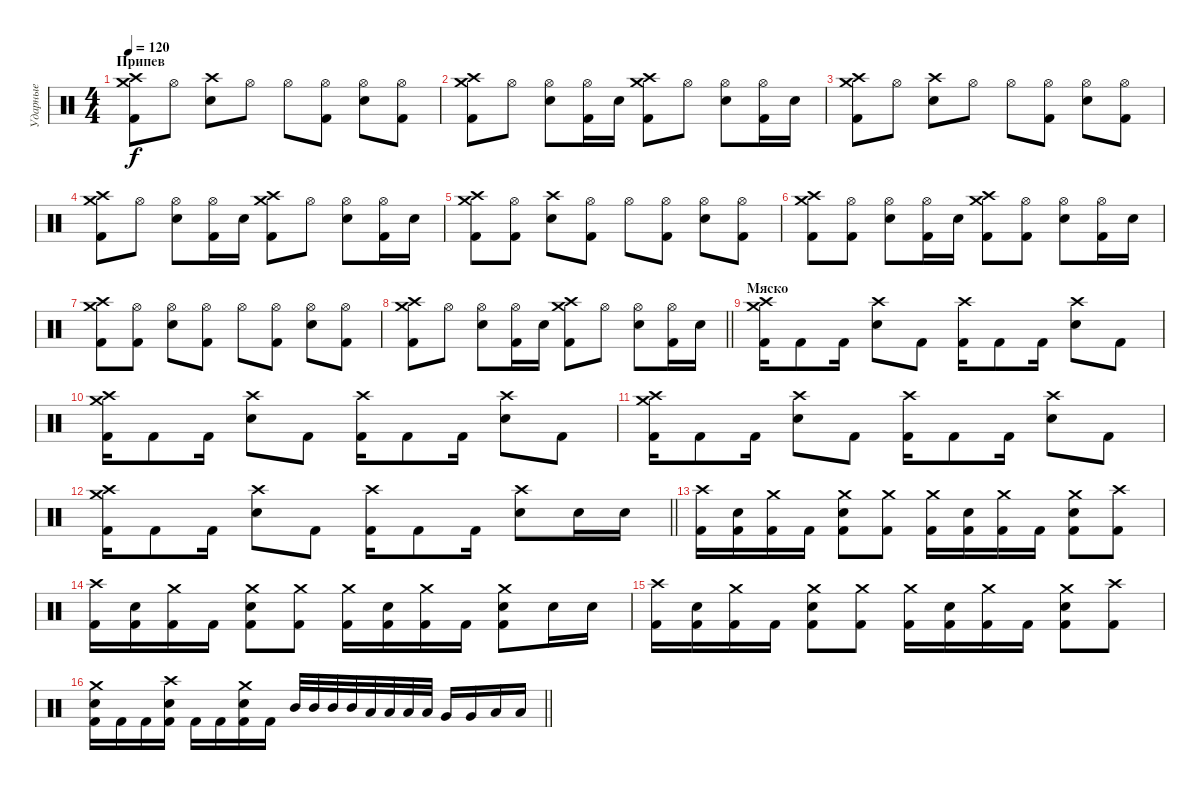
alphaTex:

\track ("Ударные" "Ударные") {instrument percussion}
\staff
\articulation defaults
\ts (4 4)
\section ("" "Припев")
\tempo 120
\clef neutral
\ks c
("Crash high (hit)" "Crash medium (hit)" "Kick (hit) 2").8{dy f} "Hi-Hat (open)".8 ("Crash high (hit)" "Electric Snare (hit)").8 "Hi-Hat (open)".8 "Hi-Hat (open)".8 ("Hi-Hat (open)" "Kick (hit) 2").8 ("Hi-Hat (open)" "Electric Snare (hit)").8 ("Hi-Hat (open)" "Kick (hit) 2").8 |
("Crash high (hit)" "Crash medium (hit)" "Kick (hit) 2").8 "Hi-Hat (open)".8 ("Hi-Hat (open)" "Electric Snare (hit)").8 ("Hi-Hat (open)" "Kick (hit) 2").16 "Electric Snare (hit)".16 ("Crash high (hit)" "Crash medium (hit)" "Kick (hit) 2").8 "Hi-Hat (open)".8 ("Hi-Hat (open)" "Electric Snare (hit)").8 ("Hi-Hat (open)" "Kick (hit) 2").16 "Electric Snare (hit)".16 |
("Crash high (hit)" "Crash medium (hit)" "Kick (hit) 2").8 "Hi-Hat (open)".8 ("Crash high (hit)" "Electric Snare (hit)").8 "Hi-Hat (open)".8 "Hi-Hat (open)".8 ("Hi-Hat (open)" "Kick (hit) 2").8 ("Hi-Hat (open)" "Electric Snare (hit)").8 ("Hi-Hat (open)" "Kick (hit) 2").8 |
("Crash high (hit)" "Crash medium (hit)" "Kick (hit) 2").8 "Hi-Hat (open)".8 ("Hi-Hat (open)" "Electric Snare (hit)").8 ("Hi-Hat (open)" "Kick (hit) 2").16 "Electric Snare (hit)".16 ("Crash high (hit)" "Crash medium (hit)" "Kick (hit) 2").8 "Hi-Hat (open)".8 ("Hi-Hat (open)" "Electric Snare (hit)").8 ("Hi-Hat (open)" "Kick (hit) 2").16 "Electric Snare (hit)".16 |
("Crash high (hit)" "Crash medium (hit)" "Kick (hit) 2").8 ("Hi-Hat (open)" "Kick (hit) 2").8 ("Crash high (hit)" "Electric Snare (hit)").8 ("Hi-Hat (open)" "Kick (hit) 2").8 "Hi-Hat (open)".8 ("Hi-Hat (open)" "Kick (hit) 2").8 ("Hi-Hat (open)" "Electric Snare (hit)").8 ("Hi-Hat (open)" "Kick (hit) 2").8 |
("Crash high (hit)" "Crash medium (hit)" "Kick (hit) 2").8 ("Hi-Hat (open)" "Kick (hit) 2").8 ("Hi-Hat (open)" "Electric Snare (hit)").8 ("Hi-Hat (open)" "Kick (hit) 2").16 "Electric Snare (hit)".16 ("Crash high (hit)" "Crash medium (hit)" "Kick (hit) 2").8 ("Hi-Hat (open)" "Kick (hit) 2").8 ("Hi-Hat (open)" "Electric Snare (hit)").8 ("Hi-Hat (open)" "Kick (hit) 2").16 "Electric Snare (hit)".16 |
("Crash high (hit)" "Crash medium (hit)" "Kick (hit) 2").8 ("Hi-Hat (open)" "Kick (hit) 2").8 ("Hi-Hat (open)" "Electric Snare (hit)").8 ("Hi-Hat (open)" "Kick (hit) 2").8 "Hi-Hat (open)".8 ("Hi-Hat (open)" "Kick (hit) 2").8 ("Hi-Hat (open)" "Electric Snare (hit)").8 ("Hi-Hat (open)" "Kick (hit) 2").8 |
\barLineRight lightlight
("Crash high (hit)" "Crash medium (hit)" "Kick (hit) 2").8 "Hi-Hat (open)".8 ("Hi-Hat (open)" "Electric Snare (hit)").8 ("Hi-Hat (open)" "Kick (hit) 2").16 "Electric Snare (hit)".16 ("Crash high (hit)" "Crash medium (hit)" "Kick (hit) 2").8 "Hi-Hat (open)".8 ("Hi-Hat (open)" "Electric Snare (hit)").8 ("Hi-Hat (open)" "Kick (hit) 2").16 "Electric Snare (hit)".16 |
\section ("" "Мяско")
("Crash medium (hit)" "Crash high (hit)" "Kick (hit) 2").16 "Kick (hit) 2".8 "Kick (hit) 2".16 ("Crash high (hit)" "Electric Snare (hit)").8 "Kick (hit) 2".8 ("Crash high (hit)" "Kick (hit) 2").16 "Kick (hit) 2".8 "Kick (hit) 2".16 ("Crash high (hit)" "Electric Snare (hit)").8 "Kick (hit) 2".8 |
("Crash medium (hit)" "Crash high (hit)" "Kick (hit) 2").16 "Kick (hit) 2".8 "Kick (hit) 2".16 ("Crash high (hit)" "Electric Snare (hit)").8 "Kick (hit) 2".8 ("Crash high (hit)" "Kick (hit) 2").16 "Kick (hit) 2".8 "Kick (hit) 2".16 ("Crash high (hit)" "Electric Snare (hit)").8 "Kick (hit) 2".8 |
("Crash medium (hit)" "Crash high (hit)" "Kick (hit) 2").16 "Kick (hit) 2".8 "Kick (hit) 2".16 ("Crash high (hit)" "Electric Snare (hit)").8 "Kick (hit) 2".8 ("Crash high (hit)" "Kick (hit) 2").16 "Kick (hit) 2".8 "Kick (hit) 2".16 ("Crash high (hit)" "Electric Snare (hit)").8 "Kick (hit) 2".8 |
\barLineRight lightlight
("Crash medium (hit)" "Crash high (hit)" "Kick (hit) 2").16 "Kick (hit) 2".8 "Kick (hit) 2".16 ("Crash high (hit)" "Electric Snare (hit)").8 "Kick (hit) 2".8 ("Crash high (hit)" "Kick (hit) 2").16 "Kick (hit) 2".8 "Kick (hit) 2".16 ("Crash high (hit)" "Electric Snare (hit)").8 "Electric Snare (hit)".16 "Electric Snare (hit)".16 |
("Crash high (hit)" "Kick (hit) 2").16 ("Electric Snare (hit)" "Kick (hit) 2").16 ("Crash medium (hit)" "Kick (hit) 2").16 "Kick (hit) 2".16 ("Crash medium (hit)" "Electric Snare (hit)" "Kick (hit) 2").8 ("Crash medium (hit)" "Kick (hit) 2").8 ("Crash medium (hit)" "Kick (hit) 2").16 ("Electric Snare (hit)" "Kick (hit) 2").16 ("Crash medium (hit)" "Kick (hit) 2").16 "Kick (hit) 2".16 ("Crash medium (hit)" "Electric Snare (hit)" "Kick (hit) 2").8 ("Crash high (hit)" "Kick (hit) 2").8 |
("Crash high (hit)" "Kick (hit) 2").16 ("Electric Snare (hit)" "Kick (hit) 2").16 ("Crash medium (hit)" "Kick (hit) 2").16 "Kick (hit) 2".16 ("Crash medium (hit)" "Electric Snare (hit)" "Kick (hit) 2").8 ("Crash medium (hit)" "Kick (hit) 2").8 ("Crash medium (hit)" "Kick (hit) 2").16 ("Electric Snare (hit)" "Kick (hit) 2").16 ("Crash medium (hit)" "Kick (hit) 2").16 "Kick (hit) 2".16 ("Crash medium (hit)" "Electric Snare (hit)" "Kick (hit) 2").8 "Electric Snare (hit)".16 "Electric Snare (hit)".16 |
("Crash high (hit)" "Kick (hit) 2").16 ("Electric Snare (hit)" "Kick (hit) 2").16 ("Crash medium (hit)" "Kick (hit) 2").16 "Kick (hit) 2".16 ("Crash medium (hit)" "Electric Snare (hit)" "Kick (hit) 2").8 ("Crash medium (hit)" "Kick (hit) 2").8 ("Crash medium (hit)" "Kick (hit) 2").16 ("Electric Snare (hit)" "Kick (hit) 2").16 ("Crash medium (hit)" "Kick (hit) 2").16 "Kick (hit) 2".16 ("Crash medium (hit)" "Electric Snare (hit)" "Kick (hit) 2").8 ("Crash high (hit)" "Kick (hit) 2").8 |
\barLineRight lightlight
("Crash medium (hit)" "Electric Snare (hit)" "Kick (hit) 2").16 "Kick (hit) 2".16 "Kick (hit) 2".16 ("Crash high (hit)" "Electric Snare (hit)" "Kick (hit) 2").16 "Kick (hit) 2".16 "Kick (hit) 2".16 ("Crash medium (hit)" "Electric Snare (hit)" "Kick (hit) 2").16 "Kick (hit) 2".16 "Mid Tom (hit)".32 "Mid Tom (hit)".32 "Mid Tom (hit)".32 "Mid Tom (hit)".32 "Low Tom (hit)".32 "Low Tom (hit)".32 "Low Tom (hit)".32 "Low Tom (hit)".32 "Very Low Tom (hit)".16 "Very Low Tom (hit)".16 "Low Floor Tom (hit)".16 "Low Floor Tom (hit)".16
